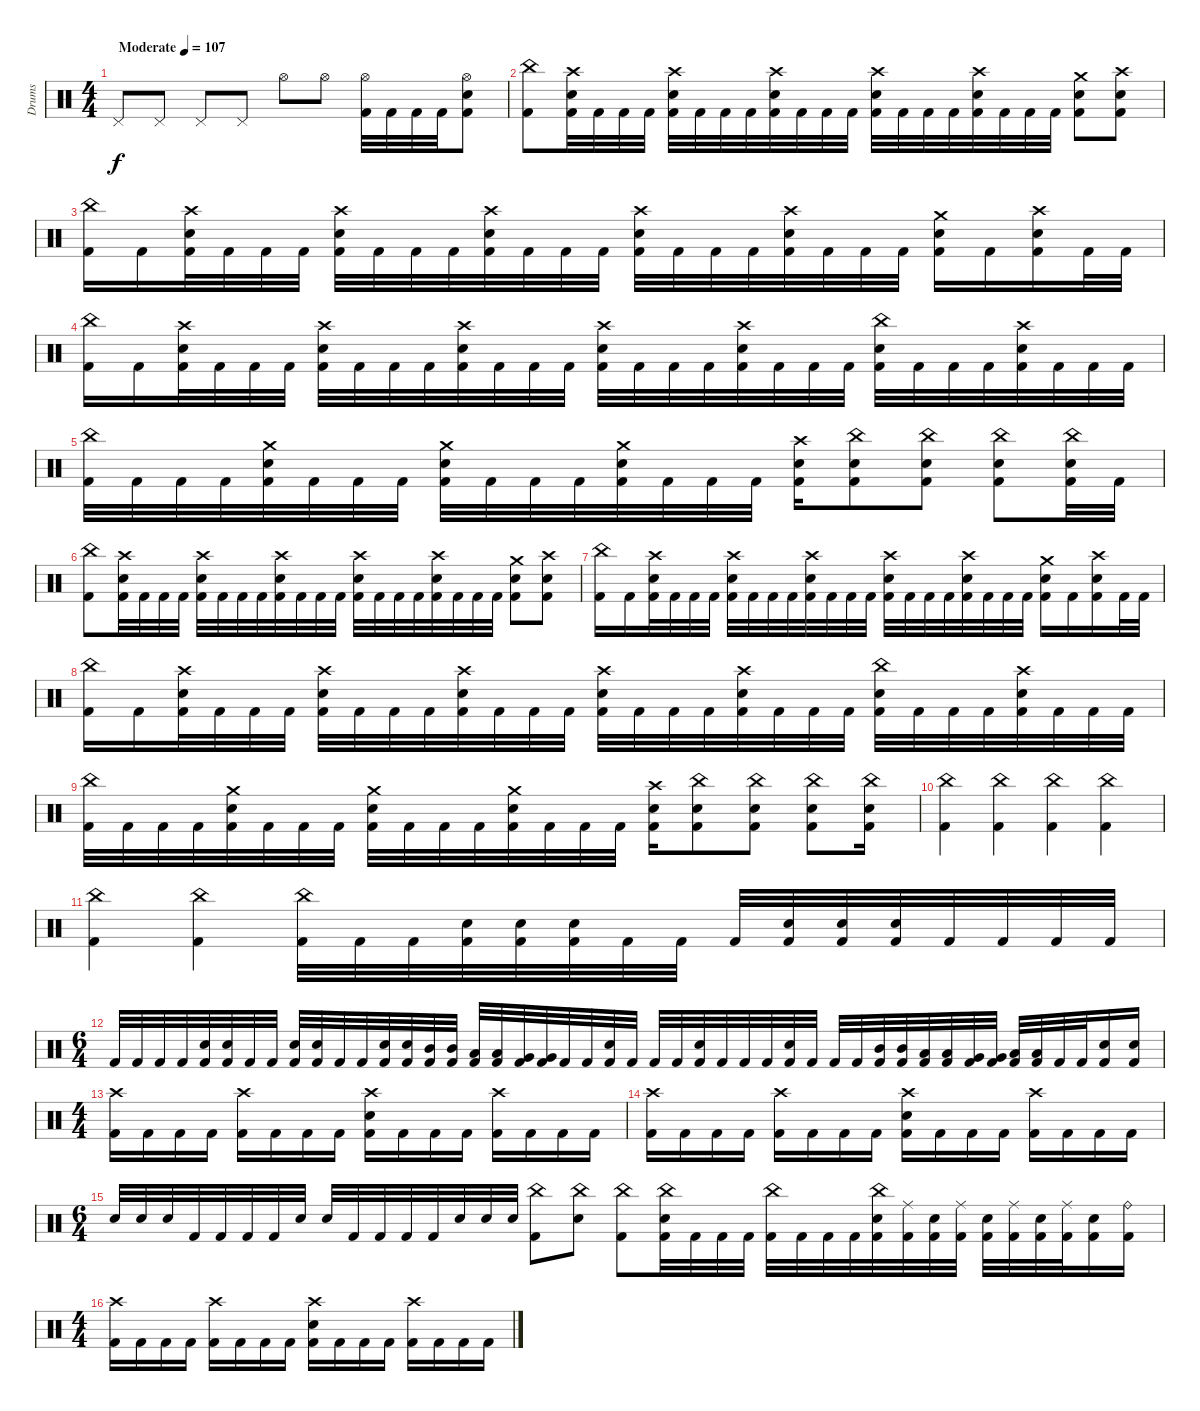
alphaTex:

\track ("Drums" "Drums") {instrument percussion}
\staff
\articulation defaults
\ts (4 4)
\tempo (107 "Moderate")
\clef neutral
\ks c "Pedal Hi-Hat (hit)".8{dy f} "Pedal Hi-Hat (hit)".8 "Pedal Hi-Hat (hit)".8 "Pedal Hi-Hat (hit)".8 "Hi-Hat (open)".8 "Hi-Hat (open)".8
("Hi-Hat (open)" "Kick (hit) 2").32 "Kick (hit) 2".32 "Kick (hit) 2".32 "Kick (hit) 2".32 ("Hi-Hat (open)" "Electric Snare (hit)" "Kick (hit) 2").8 |
("China (hit)" "Kick (hit) 2").8 ("Crash high (hit)" "Electric Snare (hit)" "Kick (hit) 2").32 "Kick (hit) 2".32 "Kick (hit) 2".32 "Kick (hit) 2".32 ("Crash high (hit)" "Electric Snare (hit)" "Kick (hit) 2").32 "Kick (hit) 2".32 "Kick (hit) 2".32 "Kick (hit) 2".32 ("Crash high (hit)" "Electric Snare (hit)" "Kick (hit) 2").32 "Kick (hit) 2".32 "Kick (hit) 2".32 "Kick (hit) 2".32 ("Crash high (hit)" "Electric Snare (hit)" "Kick (hit) 2").32 "Kick (hit) 2".32 "Kick (hit) 2".32 "Kick (hit) 2".32 ("Crash high (hit)" "Electric Snare (hit)" "Kick (hit) 2").32 "Kick (hit) 2".32 "Kick (hit) 2".32 "Kick (hit) 2".32 ("Crash medium (hit)" "Electric Snare (hit)" "Kick (hit) 2").8 ("Crash high (hit)" "Electric Snare (hit)" "Kick (hit) 2").8 |
("China (hit)" "Kick (hit) 2").16 "Kick (hit) 2".16 ("Crash high (hit)" "Electric Snare (hit)" "Kick (hit) 2").32 "Kick (hit) 2".32 "Kick (hit) 2".32 "Kick (hit) 2".32 ("Crash high (hit)" "Electric Snare (hit)" "Kick (hit) 2").32 "Kick (hit) 2".32 "Kick (hit) 2".32 "Kick (hit) 2".32 ("Crash high (hit)" "Electric Snare (hit)" "Kick (hit) 2").32 "Kick (hit) 2".32 "Kick (hit) 2".32 "Kick (hit) 2".32 ("Crash high (hit)" "Electric Snare (hit)" "Kick (hit) 2").32 "Kick (hit) 2".32 "Kick (hit) 2".32 "Kick (hit) 2".32 ("Crash high (hit)" "Electric Snare (hit)" "Kick (hit) 2").32 "Kick (hit) 2".32 "Kick (hit) 2".32 "Kick (hit) 2".32 ("Crash medium (hit)" "Electric Snare (hit)" "Kick (hit) 2").16 "Kick (hit) 2".16 ("Crash high (hit)" "Electric Snare (hit)" "Kick (hit) 2").16 "Kick (hit) 2".32 "Kick (hit) 2".32 |
("China (hit)" "Kick (hit) 2").16 "Kick (hit) 2".16 ("Crash high (hit)" "Electric Snare (hit)" "Kick (hit) 2").32 "Kick (hit) 2".32 "Kick (hit) 2".32 "Kick (hit) 2".32 ("Crash high (hit)" "Electric Snare (hit)" "Kick (hit) 2").32 "Kick (hit) 2".32 "Kick (hit) 2".32 "Kick (hit) 2".32 ("Crash high (hit)" "Electric Snare (hit)" "Kick (hit) 2").32 "Kick (hit) 2".32 "Kick (hit) 2".32 "Kick (hit) 2".32 ("Crash high (hit)" "Electric Snare (hit)" "Kick (hit) 2").32 "Kick (hit) 2".32 "Kick (hit) 2".32 "Kick (hit) 2".32 ("Crash high (hit)" "Electric Snare (hit)" "Kick (hit) 2").32 "Kick (hit) 2".32 "Kick (hit) 2".32 "Kick (hit) 2".32 ("China (hit)" "Electric Snare (hit)" "Kick (hit) 2").32 "Kick (hit) 2".32 "Kick (hit) 2".32 "Kick (hit) 2".32 ("Crash high (hit)" "Electric Snare (hit)" "Kick (hit) 2").32 "Kick (hit) 2".32 "Kick (hit) 2".32 "Kick (hit) 2".32 |
("China (hit)" "Kick (hit) 2").32 "Kick (hit) 2".32 "Kick (hit) 2".32 "Kick (hit) 2".32 ("Crash medium (hit)" "Electric Snare (hit)" "Kick (hit) 2").32 "Kick (hit) 2".32 "Kick (hit) 2".32 "Kick (hit) 2".32 ("Crash medium (hit)" "Electric Snare (hit)" "Kick (hit) 2").32 "Kick (hit) 2".32 "Kick (hit) 2".32 "Kick (hit) 2".32 ("Crash medium (hit)" "Electric Snare (hit)" "Kick (hit) 2").32 "Kick (hit) 2".32 "Kick (hit) 2".32 "Kick (hit) 2".32 ("Crash high (hit)" "Electric Snare (hit)" "Kick (hit) 2").16 ("China (hit)" "Electric Snare (hit)" "Kick (hit) 2").8 ("China (hit)" "Electric Snare (hit)" "Kick (hit) 2").8 ("China (hit)" "Electric Snare (hit)" "Kick (hit) 2").8 ("China (hit)" "Electric Snare (hit)" "Kick (hit) 2").32 "Kick (hit) 2".32 |
("China (hit)" "Kick (hit) 2").8 ("Crash high (hit)" "Electric Snare (hit)" "Kick (hit) 2").32 "Kick (hit) 2".32 "Kick (hit) 2".32 "Kick (hit) 2".32 ("Crash high (hit)" "Electric Snare (hit)" "Kick (hit) 2").32 "Kick (hit) 2".32 "Kick (hit) 2".32 "Kick (hit) 2".32 ("Crash high (hit)" "Electric Snare (hit)" "Kick (hit) 2").32 "Kick (hit) 2".32 "Kick (hit) 2".32 "Kick (hit) 2".32 ("Crash high (hit)" "Electric Snare (hit)" "Kick (hit) 2").32 "Kick (hit) 2".32 "Kick (hit) 2".32 "Kick (hit) 2".32 ("Crash high (hit)" "Electric Snare (hit)" "Kick (hit) 2").32 "Kick (hit) 2".32 "Kick (hit) 2".32 "Kick (hit) 2".32 ("Crash medium (hit)" "Electric Snare (hit)" "Kick (hit) 2").8 ("Crash high (hit)" "Electric Snare (hit)" "Kick (hit) 2").8 |
("China (hit)" "Kick (hit) 2").16 "Kick (hit) 2".16 ("Crash high (hit)" "Electric Snare (hit)" "Kick (hit) 2").32 "Kick (hit) 2".32 "Kick (hit) 2".32 "Kick (hit) 2".32 ("Crash high (hit)" "Electric Snare (hit)" "Kick (hit) 2").32 "Kick (hit) 2".32 "Kick (hit) 2".32 "Kick (hit) 2".32 ("Crash high (hit)" "Electric Snare (hit)" "Kick (hit) 2").32 "Kick (hit) 2".32 "Kick (hit) 2".32 "Kick (hit) 2".32 ("Crash high (hit)" "Electric Snare (hit)" "Kick (hit) 2").32 "Kick (hit) 2".32 "Kick (hit) 2".32 "Kick (hit) 2".32 ("Crash high (hit)" "Electric Snare (hit)" "Kick (hit) 2").32 "Kick (hit) 2".32 "Kick (hit) 2".32 "Kick (hit) 2".32 ("Crash medium (hit)" "Electric Snare (hit)" "Kick (hit) 2").16 "Kick (hit) 2".16 ("Crash high (hit)" "Electric Snare (hit)" "Kick (hit) 2").16 "Kick (hit) 2".32 "Kick (hit) 2".32 |
("China (hit)" "Kick (hit) 2").16 "Kick (hit) 2".16 ("Crash high (hit)" "Electric Snare (hit)" "Kick (hit) 2").32 "Kick (hit) 2".32 "Kick (hit) 2".32 "Kick (hit) 2".32 ("Crash high (hit)" "Electric Snare (hit)" "Kick (hit) 2").32 "Kick (hit) 2".32 "Kick (hit) 2".32 "Kick (hit) 2".32 ("Crash high (hit)" "Electric Snare (hit)" "Kick (hit) 2").32 "Kick (hit) 2".32 "Kick (hit) 2".32 "Kick (hit) 2".32 ("Crash high (hit)" "Electric Snare (hit)" "Kick (hit) 2").32 "Kick (hit) 2".32 "Kick (hit) 2".32 "Kick (hit) 2".32 ("Crash high (hit)" "Electric Snare (hit)" "Kick (hit) 2").32 "Kick (hit) 2".32 "Kick (hit) 2".32 "Kick (hit) 2".32 ("China (hit)" "Electric Snare (hit)" "Kick (hit) 2").32 "Kick (hit) 2".32 "Kick (hit) 2".32 "Kick (hit) 2".32 ("Crash high (hit)" "Electric Snare (hit)" "Kick (hit) 2").32 "Kick (hit) 2".32 "Kick (hit) 2".32 "Kick (hit) 2".32 |
("China (hit)" "Kick (hit) 2").32 "Kick (hit) 2".32 "Kick (hit) 2".32 "Kick (hit) 2".32 ("Crash medium (hit)" "Electric Snare (hit)" "Kick (hit) 2").32 "Kick (hit) 2".32 "Kick (hit) 2".32 "Kick (hit) 2".32 ("Crash medium (hit)" "Electric Snare (hit)" "Kick (hit) 2").32 "Kick (hit) 2".32 "Kick (hit) 2".32 "Kick (hit) 2".32 ("Crash medium (hit)" "Electric Snare (hit)" "Kick (hit) 2").32 "Kick (hit) 2".32 "Kick (hit) 2".32 "Kick (hit) 2".32 ("Crash high (hit)" "Electric Snare (hit)" "Kick (hit) 2").16 ("China (hit)" "Electric Snare (hit)" "Kick (hit) 2").8 ("China (hit)" "Electric Snare (hit)" "Kick (hit) 2").8 ("China (hit)" "Electric Snare (hit)" "Kick (hit) 2").8 ("China (hit)" "Electric Snare (hit)" "Kick (hit) 2").16 |
("China (hit)" "Kick (hit) 2").4 ("China (hit)" "Kick (hit) 2").4 ("China (hit)" "Kick (hit) 2").4 ("China (hit)" "Kick (hit) 2").4 |
("China (hit)" "Kick (hit) 2").4 ("China (hit)" "Kick (hit) 2").4 ("China (hit)" "Kick (hit) 2").32 "Kick (hit) 2".32 "Kick (hit) 2".32 ("Electric Snare (hit)" "Kick (hit) 2").32 ("Electric Snare (hit)" "Kick (hit) 2").32 ("Electric Snare (hit)" "Kick (hit) 2").32 "Kick (hit) 2".32 "Kick (hit) 2".32 "Kick (hit) 2".32 ("Electric Snare (hit)" "Kick (hit) 2").32 ("Electric Snare (hit)" "Kick (hit) 2").32 ("Electric Snare (hit)" "Kick (hit) 2").32 "Kick (hit) 2".32 "Kick (hit) 2".32 "Kick (hit) 2".32 "Kick (hit) 2".32 |
\ts (6 4)
"Kick (hit) 2".32 "Kick (hit) 2".32 "Kick (hit) 2".32 "Kick (hit) 2".32 ("Electric Snare (hit)" "Kick (hit) 2").32 ("Electric Snare (hit)" "Kick (hit) 2").32 "Kick (hit) 2".32 "Kick (hit) 2".32 ("Electric Snare (hit)" "Kick (hit) 2").32 ("Electric Snare (hit)" "Kick (hit) 2").32 "Kick (hit) 2".32 "Kick (hit) 2".32 ("Electric Snare (hit)" "Kick (hit) 2").32 ("Electric Snare (hit)" "Kick (hit) 2").32 ("Mid Tom (hit)" "Kick (hit) 2").32 ("Mid Tom (hit)" "Kick (hit) 2").32 ("Low Tom (hit)" "Kick (hit) 2").32 ("Low Tom (hit)" "Kick (hit) 2").32 ("Very Low Tom (hit)" "Kick (hit) 2").32 ("Very Low Tom (hit)" "Kick (hit) 2").32 "Kick (hit) 2".32 "Kick (hit) 2".32 ("Electric Snare (hit)" "Kick (hit) 2").32 "Kick (hit) 2".32 "Kick (hit) 2".32 "Kick (hit) 2".32 ("Electric Snare (hit)" "Kick (hit) 2").32 "Kick (hit) 2".32 "Kick (hit) 2".32 "Kick (hit) 2".32 ("Electric Snare (hit)" "Kick (hit) 2").32 "Kick (hit) 2".32 "Kick (hit) 2".32 "Kick (hit) 2".32 ("Mid Tom (hit)" "Kick (hit) 2").32 ("Mid Tom (hit)" "Kick (hit) 2").32 ("Low Tom (hit)" "Kick (hit) 2").32 ("Low Tom (hit)" "Kick (hit) 2").32 ("Very Low Tom (hit)" "Kick (hit) 2").32 ("Very Low Tom (hit)" "Kick (hit) 2").32 ("Low Floor Tom (hit)" "Kick (hit) 2").32 ("Low Floor Tom (hit)" "Kick (hit) 2").32 "Kick (hit) 2".32 "Kick (hit) 2".32 ("Electric Snare (hit)" "Kick (hit) 2").16 ("Electric Snare (hit)" "Kick (hit) 2").16 |
\ts (4 4)
("Crash high (hit)" "Kick (hit) 2").16 "Kick (hit) 2".16 "Kick (hit) 2".16 "Kick (hit) 2".16 ("Crash high (hit)" "Kick (hit) 2").16 "Kick (hit) 2".16 "Kick (hit) 2".16 "Kick (hit) 2".16 ("Crash high (hit)" "Electric Snare (hit)" "Kick (hit) 2").16 "Kick (hit) 2".16 "Kick (hit) 2".16 "Kick (hit) 2".16 ("Crash high (hit)" "Kick (hit) 2").16 "Kick (hit) 2".16 "Kick (hit) 2".16 "Kick (hit) 2".16 |
("Crash high (hit)" "Kick (hit) 2").16 "Kick (hit) 2".16 "Kick (hit) 2".16 "Kick (hit) 2".16 ("Crash high (hit)" "Kick (hit) 2").16 "Kick (hit) 2".16 "Kick (hit) 2".16 "Kick (hit) 2".16 ("Crash high (hit)" "Electric Snare (hit)" "Kick (hit) 2").16 "Kick (hit) 2".16 "Kick (hit) 2".16 "Kick (hit) 2".16 ("Crash high (hit)" "Kick (hit) 2").16 "Kick (hit) 2".16 "Kick (hit) 2".16 "Kick (hit) 2".16 |
\ts (6 4)
"Electric Snare (hit)".32 "Electric Snare (hit)".32 "Electric Snare (hit)".32 "Kick (hit) 2".32 "Kick (hit) 2".32 "Kick (hit) 2".32 "Kick (hit) 2".32 "Electric Snare (hit)".32 "Electric Snare (hit)".32 "Kick (hit) 2".32 "Kick (hit) 2".32 "Kick (hit) 2".32 "Kick (hit) 2".32 "Electric Snare (hit)".32 "Electric Snare (hit)".32 "Electric Snare (hit)".32 ("China (hit)" "Kick (hit) 2").8 ("China (hit)" "Electric Snare (hit)").8 ("China (hit)" "Kick (hit) 2").8 ("China (hit)" "Electric Snare (hit)" "Kick (hit) 2").32 "Kick (hit) 2".32 "Kick (hit) 2".32 "Kick (hit) 2".32 ("China (hit)" "Kick (hit) 2").32 "Kick (hit) 2".32 "Kick (hit) 2".32 "Kick (hit) 2".32 ("China (hit)" "Electric Snare (hit)" "Kick (hit) 2").32 ("Ride (middle)" "Kick (hit) 2").32 ("Electric Snare (hit)" "Kick (hit) 2").32 ("Ride (middle)" "Kick (hit) 2").32 ("Electric Snare (hit)" "Kick (hit) 2").32 ("Ride (middle)" "Kick (hit) 2").32 ("Electric Snare (hit)" "Kick (hit) 2").32 ("Ride (middle)" "Kick (hit) 2").32 ("Electric Snare (hit)" "Kick (hit) 2").16 ("Ride (bell)" "Kick (hit) 2").16 |
\ts (4 4)
("Crash high (hit)" "Kick (hit) 2").16 "Kick (hit) 2".16 "Kick (hit) 2".16 "Kick (hit) 2".16 ("Crash high (hit)" "Kick (hit) 2").16 "Kick (hit) 2".16 "Kick (hit) 2".16 "Kick (hit) 2".16 ("Crash high (hit)" "Electric Snare (hit)" "Kick (hit) 2").16 "Kick (hit) 2".16 "Kick (hit) 2".16 "Kick (hit) 2".16 ("Crash high (hit)" "Kick (hit) 2").16 "Kick (hit) 2".16 "Kick (hit) 2".16 "Kick (hit) 2".16
